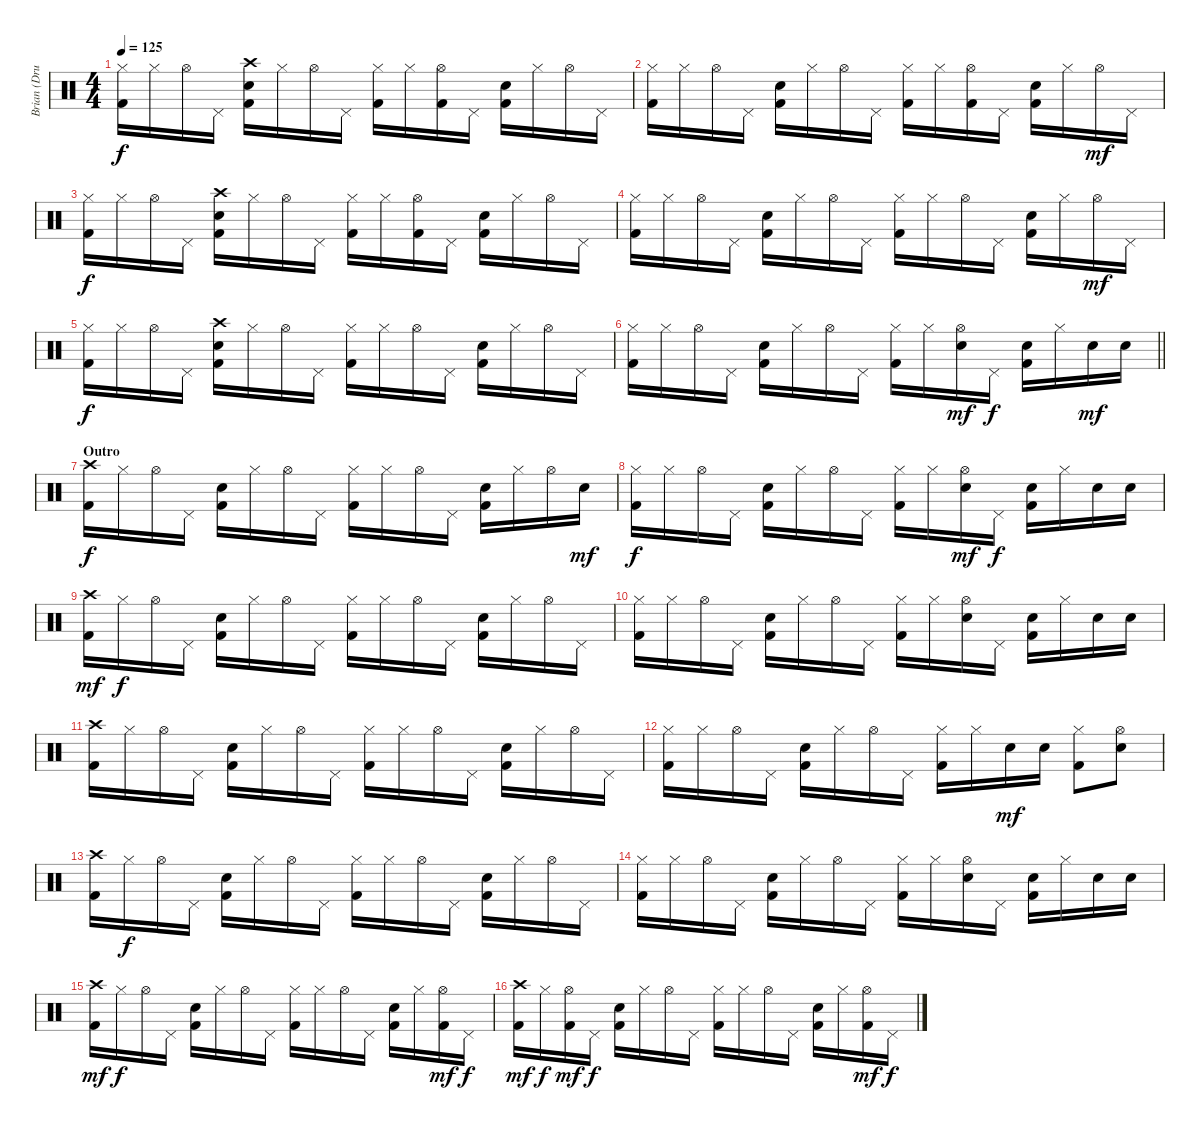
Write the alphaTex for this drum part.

\track ("Brian (Drums)" "Brian (Dru") {instrument percussion}
\staff {score}
\articulation defaults
\ts (4 4)
\tempo 125
\clef neutral
\ks c
("Hi-Hat (closed)" "Kick (hit) 2").16{dy f} "Hi-Hat (closed)".16 "Hi-Hat (open)".16 "Pedal Hi-Hat (hit)".16 ("Crash high (hit)" "Electric Snare (hit)" "Kick (hit) 2").16 "Hi-Hat (closed)".16 "Hi-Hat (open)".16 "Pedal Hi-Hat (hit)".16 ("Hi-Hat (closed)" "Kick (hit) 2").16 "Hi-Hat (closed)".16 ("Hi-Hat (open)" "Kick (hit) 2").16 "Pedal Hi-Hat (hit)".16 ("Electric Snare (hit)" "Kick (hit) 2").16 "Hi-Hat (closed)".16 "Hi-Hat (open)".16 "Pedal Hi-Hat (hit)".16 |
("Hi-Hat (closed)" "Kick (hit) 2").16 "Hi-Hat (closed)".16 "Hi-Hat (open)".16 "Pedal Hi-Hat (hit)".16 ("Electric Snare (hit)" "Kick (hit) 2").16 "Hi-Hat (closed)".16 "Hi-Hat (open)".16 "Pedal Hi-Hat (hit)".16 ("Hi-Hat (closed)" "Kick (hit) 2").16 "Hi-Hat (closed)".16 ("Hi-Hat (open)" "Kick (hit) 2").16 "Pedal Hi-Hat (hit)".16 ("Electric Snare (hit)" "Kick (hit) 2").16 "Hi-Hat (closed)".16 "Hi-Hat (open)".16{dy mf} "Pedal Hi-Hat (hit)".16 |
("Hi-Hat (closed)" "Kick (hit) 2").16{dy f} "Hi-Hat (closed)".16 "Hi-Hat (open)".16 "Pedal Hi-Hat (hit)".16 ("Crash high (hit)" "Electric Snare (hit)" "Kick (hit) 2").16 "Hi-Hat (closed)".16 "Hi-Hat (open)".16 "Pedal Hi-Hat (hit)".16 ("Hi-Hat (closed)" "Kick (hit) 2").16 "Hi-Hat (closed)".16 ("Hi-Hat (open)" "Kick (hit) 2").16 "Pedal Hi-Hat (hit)".16 ("Electric Snare (hit)" "Kick (hit) 2").16 "Hi-Hat (closed)".16 "Hi-Hat (open)".16 "Pedal Hi-Hat (hit)".16 |
("Hi-Hat (closed)" "Kick (hit) 2").16 "Hi-Hat (closed)".16 "Hi-Hat (open)".16 "Pedal Hi-Hat (hit)".16 ("Electric Snare (hit)" "Kick (hit) 2").16 "Hi-Hat (closed)".16 "Hi-Hat (open)".16 "Pedal Hi-Hat (hit)".16 ("Hi-Hat (closed)" "Kick (hit) 2").16 "Hi-Hat (closed)".16 "Hi-Hat (open)".16 "Pedal Hi-Hat (hit)".16 ("Electric Snare (hit)" "Kick (hit) 2").16 "Hi-Hat (closed)".16 "Hi-Hat (open)".16{dy mf} "Pedal Hi-Hat (hit)".16 |
("Hi-Hat (closed)" "Kick (hit) 2").16{dy f} "Hi-Hat (closed)".16 "Hi-Hat (open)".16 "Pedal Hi-Hat (hit)".16 ("Crash high (hit)" "Electric Snare (hit)" "Kick (hit) 2").16 "Hi-Hat (closed)".16 "Hi-Hat (open)".16 "Pedal Hi-Hat (hit)".16 ("Hi-Hat (closed)" "Kick (hit) 2").16 "Hi-Hat (closed)".16 "Hi-Hat (open)".16 "Pedal Hi-Hat (hit)".16 ("Electric Snare (hit)" "Kick (hit) 2").16 "Hi-Hat (closed)".16 "Hi-Hat (open)".16 "Pedal Hi-Hat (hit)".16 |
\barLineRight lightlight
("Hi-Hat (closed)" "Kick (hit) 2").16 "Hi-Hat (closed)".16 "Hi-Hat (open)".16 "Pedal Hi-Hat (hit)".16 ("Electric Snare (hit)" "Kick (hit) 2").16 "Hi-Hat (closed)".16 "Hi-Hat (open)".16 "Pedal Hi-Hat (hit)".16 ("Hi-Hat (closed)" "Kick (hit) 2").16 "Hi-Hat (closed)".16 ("Hi-Hat (open)" "Electric Snare (hit)").16{dy mf} "Pedal Hi-Hat (hit)".16{dy f} ("Electric Snare (hit)" "Kick (hit) 2").16 "Hi-Hat (closed)".16 "Electric Snare (hit)".16{dy mf} "Electric Snare (hit)".16 |
\section ("" "Outro")
("Crash high (hit)" "Kick (hit) 2").16{dy f} "Hi-Hat (closed)".16 "Hi-Hat (open)".16 "Pedal Hi-Hat (hit)".16 ("Electric Snare (hit)" "Kick (hit) 2").16 "Hi-Hat (closed)".16 "Hi-Hat (open)".16 "Pedal Hi-Hat (hit)".16 ("Hi-Hat (closed)" "Kick (hit) 2").16 "Hi-Hat (closed)".16 "Hi-Hat (open)".16 "Pedal Hi-Hat (hit)".16 ("Electric Snare (hit)" "Kick (hit) 2").16 "Hi-Hat (closed)".16 "Hi-Hat (open)".16 "Electric Snare (hit)".16{dy mf} |
("Hi-Hat (closed)" "Kick (hit) 2").16{dy f} "Hi-Hat (closed)".16 "Hi-Hat (open)".16 "Pedal Hi-Hat (hit)".16 ("Electric Snare (hit)" "Kick (hit) 2").16 "Hi-Hat (closed)".16 "Hi-Hat (open)".16 "Pedal Hi-Hat (hit)".16 ("Hi-Hat (closed)" "Kick (hit) 2").16 "Hi-Hat (closed)".16 ("Hi-Hat (open)" "Electric Snare (hit)").16{dy mf} "Pedal Hi-Hat (hit)".16{dy f} ("Electric Snare (hit)" "Kick (hit) 2").16 "Hi-Hat (closed)".16 "Electric Snare (hit)".16 "Electric Snare (hit)".16 |
("Crash high (hit)" "Kick (hit) 2").16{dy mf} "Hi-Hat (closed)".16{dy f} "Hi-Hat (open)".16 "Pedal Hi-Hat (hit)".16 ("Electric Snare (hit)" "Kick (hit) 2").16 "Hi-Hat (closed)".16 "Hi-Hat (open)".16 "Pedal Hi-Hat (hit)".16 ("Hi-Hat (closed)" "Kick (hit) 2").16 "Hi-Hat (closed)".16 "Hi-Hat (open)".16 "Pedal Hi-Hat (hit)".16 ("Electric Snare (hit)" "Kick (hit) 2").16 "Hi-Hat (closed)".16 "Hi-Hat (open)".16 "Pedal Hi-Hat (hit)".16 |
("Hi-Hat (closed)" "Kick (hit) 2").16 "Hi-Hat (closed)".16 "Hi-Hat (open)".16 "Pedal Hi-Hat (hit)".16 ("Electric Snare (hit)" "Kick (hit) 2").16 "Hi-Hat (closed)".16 "Hi-Hat (open)".16 "Pedal Hi-Hat (hit)".16 ("Hi-Hat (closed)" "Kick (hit) 2").16 "Hi-Hat (closed)".16 ("Hi-Hat (open)" "Electric Snare (hit)").16 "Pedal Hi-Hat (hit)".16 ("Electric Snare (hit)" "Kick (hit) 2").16 "Hi-Hat (closed)".16 "Electric Snare (hit)".16 "Electric Snare (hit)".16 |
("Crash high (hit)" "Kick (hit) 2").16 "Hi-Hat (closed)".16 "Hi-Hat (open)".16 "Pedal Hi-Hat (hit)".16 ("Electric Snare (hit)" "Kick (hit) 2").16 "Hi-Hat (closed)".16 "Hi-Hat (open)".16 "Pedal Hi-Hat (hit)".16 ("Hi-Hat (closed)" "Kick (hit) 2").16 "Hi-Hat (closed)".16 "Hi-Hat (open)".16 "Pedal Hi-Hat (hit)".16 ("Electric Snare (hit)" "Kick (hit) 2").16 "Hi-Hat (closed)".16 "Hi-Hat (open)".16 "Pedal Hi-Hat (hit)".16 |
("Hi-Hat (closed)" "Kick (hit) 2").16 "Hi-Hat (closed)".16 "Hi-Hat (open)".16 "Pedal Hi-Hat (hit)".16 ("Electric Snare (hit)" "Kick (hit) 2").16 "Hi-Hat (closed)".16 "Hi-Hat (open)".16 "Pedal Hi-Hat (hit)".16 ("Hi-Hat (closed)" "Kick (hit) 2").16 "Hi-Hat (closed)".16 "Electric Snare (hit)".16{dy mf} "Electric Snare (hit)".16 ("Hi-Hat (closed)" "Kick (hit) 2").8 ("Hi-Hat (open)" "Electric Snare (hit)").8 |
("Crash high (hit)" "Kick (hit) 2").16 "Hi-Hat (closed)".16{dy f} "Hi-Hat (open)".16 "Pedal Hi-Hat (hit)".16 ("Electric Snare (hit)" "Kick (hit) 2").16 "Hi-Hat (closed)".16 "Hi-Hat (open)".16 "Pedal Hi-Hat (hit)".16 ("Hi-Hat (closed)" "Kick (hit) 2").16 "Hi-Hat (closed)".16 "Hi-Hat (open)".16 "Pedal Hi-Hat (hit)".16 ("Electric Snare (hit)" "Kick (hit) 2").16 "Hi-Hat (closed)".16 "Hi-Hat (open)".16 "Pedal Hi-Hat (hit)".16 |
("Hi-Hat (closed)" "Kick (hit) 2").16 "Hi-Hat (closed)".16 "Hi-Hat (open)".16 "Pedal Hi-Hat (hit)".16 ("Electric Snare (hit)" "Kick (hit) 2").16 "Hi-Hat (closed)".16 "Hi-Hat (open)".16 "Pedal Hi-Hat (hit)".16 ("Hi-Hat (closed)" "Kick (hit) 2").16 "Hi-Hat (closed)".16 ("Hi-Hat (open)" "Electric Snare (hit)").16 "Pedal Hi-Hat (hit)".16 ("Electric Snare (hit)" "Kick (hit) 2").16 "Hi-Hat (closed)".16 "Electric Snare (hit)".16 "Electric Snare (hit)".16 |
("Crash high (hit)" "Kick (hit) 2").16{dy mf} "Hi-Hat (closed)".16{dy f} "Hi-Hat (open)".16 "Pedal Hi-Hat (hit)".16 ("Electric Snare (hit)" "Kick (hit) 2").16 "Hi-Hat (closed)".16 "Hi-Hat (open)".16 "Pedal Hi-Hat (hit)".16 ("Hi-Hat (closed)" "Kick (hit) 2").16 "Hi-Hat (closed)".16 "Hi-Hat (open)".16 "Pedal Hi-Hat (hit)".16 ("Electric Snare (hit)" "Kick (hit) 2").16 "Hi-Hat (closed)".16 ("Hi-Hat (open)" "Kick (hit) 2").16{dy mf} "Pedal Hi-Hat (hit)".16{dy f} |
("Crash high (hit)" "Kick (hit) 2").16{dy mf} "Hi-Hat (closed)".16{dy f} ("Hi-Hat (open)" "Kick (hit) 2").16{dy mf} "Pedal Hi-Hat (hit)".16{dy f} ("Electric Snare (hit)" "Kick (hit) 2").16 "Hi-Hat (closed)".16 "Hi-Hat (open)".16 "Pedal Hi-Hat (hit)".16 ("Hi-Hat (closed)" "Kick (hit) 2").16 "Hi-Hat (closed)".16 "Hi-Hat (open)".16 "Pedal Hi-Hat (hit)".16 ("Electric Snare (hit)" "Kick (hit) 2").16 "Hi-Hat (closed)".16 ("Hi-Hat (open)" "Kick (hit) 2").16{dy mf} "Pedal Hi-Hat (hit)".16{dy f}
